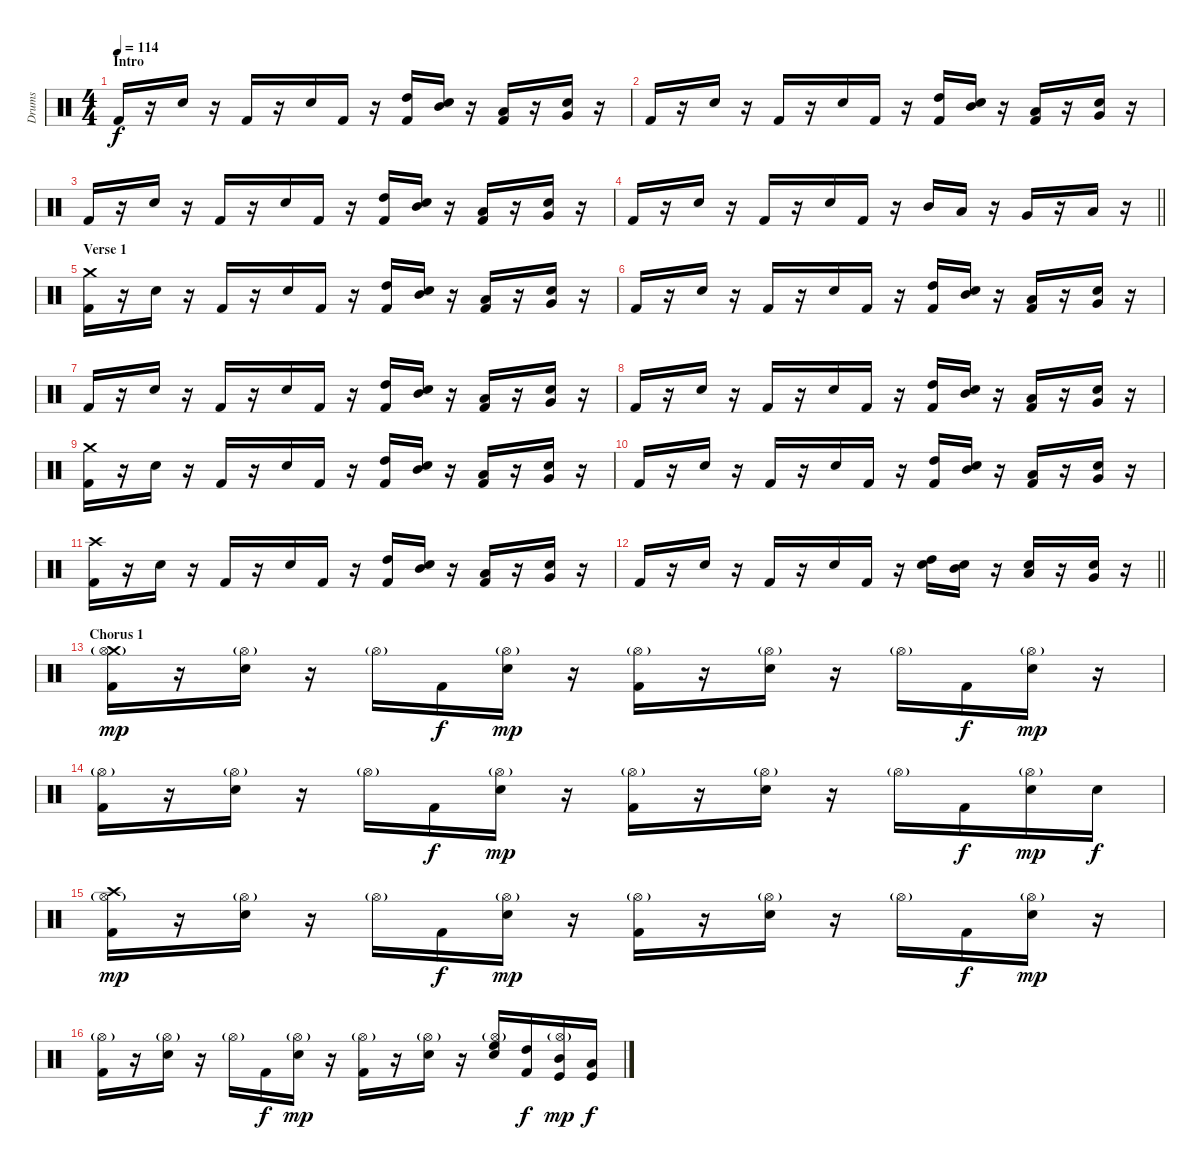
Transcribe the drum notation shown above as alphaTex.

\track ("Drums" "Drums") {instrument percussion}
\staff {score}
\articulation defaults
\ts (4 4)
\section ("" "Intro")
\tempo 114
\clef neutral
\ks c "Kick (hit) 2".16{dy f}
r.16 "Electric Snare (hit)".16 r.16 "Kick (hit) 2".16 r.16 "Electric Snare (hit)".16 "Kick (hit) 2".16 r.16 ("High Tom (hit)" "Kick (hit) 2").16 ("Mid Tom (hit)" "Electric Snare (hit)").16 r.16 ("Low Tom (hit)" "Kick (hit) 2").16 r.16 ("Very Low Tom (hit)" "Electric Snare (hit)").16 r.16 |
"Kick (hit) 2".16 r.16 "Electric Snare (hit)".16 r.16 "Kick (hit) 2".16 r.16 "Electric Snare (hit)".16 "Kick (hit) 2".16 r.16 ("High Tom (hit)" "Kick (hit) 2").16 ("Mid Tom (hit)" "Electric Snare (hit)").16 r.16 ("Low Tom (hit)" "Kick (hit) 2").16 r.16 ("Very Low Tom (hit)" "Electric Snare (hit)").16 r.16 |
"Kick (hit) 2".16 r.16 "Electric Snare (hit)".16 r.16 "Kick (hit) 2".16 r.16 "Electric Snare (hit)".16 "Kick (hit) 2".16 r.16 ("High Tom (hit)" "Kick (hit) 2").16 ("Mid Tom (hit)" "Electric Snare (hit)").16 r.16 ("Low Tom (hit)" "Kick (hit) 2").16 r.16 ("Very Low Tom (hit)" "Electric Snare (hit)").16 r.16 |
\barLineRight lightlight "Kick (hit) 2".16
r.16 "Electric Snare (hit)".16 r.16 "Kick (hit) 2".16 r.16 "Electric Snare (hit)".16 "Kick (hit) 2".16 r.16 "Mid Tom (hit)".16 "Low Tom (hit)".16 r.16 "Very Low Tom (hit)".16 r.16 "Low Floor Tom (hit)".16 r.16 |
\section ("" "Verse 1")
("Crash medium (hit)" "Kick (hit) 2").16 r.16 "Electric Snare (hit)".16 r.16 "Kick (hit) 2".16 r.16 "Electric Snare (hit)".16 "Kick (hit) 2".16 r.16 ("High Tom (hit)" "Kick (hit) 2").16 ("Mid Tom (hit)" "Electric Snare (hit)").16 r.16 ("Low Tom (hit)" "Kick (hit) 2").16 r.16 ("Very Low Tom (hit)" "Electric Snare (hit)").16 r.16 |
"Kick (hit) 2".16 r.16 "Electric Snare (hit)".16 r.16 "Kick (hit) 2".16 r.16 "Electric Snare (hit)".16 "Kick (hit) 2".16 r.16 ("High Tom (hit)" "Kick (hit) 2").16 ("Mid Tom (hit)" "Electric Snare (hit)").16 r.16 ("Low Tom (hit)" "Kick (hit) 2").16 r.16 ("Very Low Tom (hit)" "Electric Snare (hit)").16 r.16 |
"Kick (hit) 2".16 r.16 "Electric Snare (hit)".16 r.16 "Kick (hit) 2".16 r.16 "Electric Snare (hit)".16 "Kick (hit) 2".16 r.16 ("High Tom (hit)" "Kick (hit) 2").16 ("Mid Tom (hit)" "Electric Snare (hit)").16 r.16 ("Low Tom (hit)" "Kick (hit) 2").16 r.16 ("Very Low Tom (hit)" "Electric Snare (hit)").16 r.16 |
"Kick (hit) 2".16 r.16 "Electric Snare (hit)".16 r.16 "Kick (hit) 2".16 r.16 "Electric Snare (hit)".16 "Kick (hit) 2".16 r.16 ("High Tom (hit)" "Kick (hit) 2").16 ("Mid Tom (hit)" "Electric Snare (hit)").16 r.16 ("Low Tom (hit)" "Kick (hit) 2").16 r.16 ("Very Low Tom (hit)" "Electric Snare (hit)").16 r.16 |
("Crash medium (hit)" "Kick (hit) 2").16 r.16 "Electric Snare (hit)".16 r.16 "Kick (hit) 2".16 r.16 "Electric Snare (hit)".16 "Kick (hit) 2".16 r.16 ("High Tom (hit)" "Kick (hit) 2").16 ("Mid Tom (hit)" "Electric Snare (hit)").16 r.16 ("Low Tom (hit)" "Kick (hit) 2").16 r.16 ("Very Low Tom (hit)" "Electric Snare (hit)").16 r.16 |
"Kick (hit) 2".16 r.16 "Electric Snare (hit)".16 r.16 "Kick (hit) 2".16 r.16 "Electric Snare (hit)".16 "Kick (hit) 2".16 r.16 ("High Tom (hit)" "Kick (hit) 2").16 ("Mid Tom (hit)" "Electric Snare (hit)").16 r.16 ("Low Tom (hit)" "Kick (hit) 2").16 r.16 ("Very Low Tom (hit)" "Electric Snare (hit)").16 r.16 |
("Crash high (hit)" "Kick (hit) 2").16 r.16 "Electric Snare (hit)".16 r.16 "Kick (hit) 2".16 r.16 "Electric Snare (hit)".16 "Kick (hit) 2".16 r.16 ("High Tom (hit)" "Kick (hit) 2").16 ("Mid Tom (hit)" "Electric Snare (hit)").16 r.16 ("Low Tom (hit)" "Kick (hit) 2").16 r.16 ("Very Low Tom (hit)" "Electric Snare (hit)").16 r.16 |
\barLineRight lightlight "Kick (hit) 2".16
r.16 "Electric Snare (hit)".16 r.16 "Kick (hit) 2".16 r.16 "Electric Snare (hit)".16 "Kick (hit) 2".16 r.16 ("High Tom (hit)" "Electric Snare (hit)").16 ("Mid Tom (hit)" "Electric Snare (hit)").16 r.16 ("Low Tom (hit)" "Electric Snare (hit)").16 r.16 ("Very Low Tom (hit)" "Electric Snare (hit)").16 r.16 |
\section ("" "Chorus 1")
("Crash medium (hit)" "Hi-Hat (open)"{g} "Kick (hit) 2").16{dy mp} r.16 ("Hi-Hat (open)"{g} "Electric Snare (hit)").16 r.16 "Hi-Hat (open)"{g}.16 "Kick (hit) 2".16{dy f} ("Hi-Hat (open)"{g} "Electric Snare (hit)").16{dy mp} r.16 ("Hi-Hat (open)"{g} "Kick (hit) 2").16 r.16 ("Hi-Hat (open)"{g} "Electric Snare (hit)").16 r.16 "Hi-Hat (open)"{g}.16 "Kick (hit) 2".16{dy f} ("Hi-Hat (open)"{g} "Electric Snare (hit)").16{dy mp} r.16 |
("Hi-Hat (open)"{g} "Kick (hit) 2").16 r.16 ("Hi-Hat (open)"{g} "Electric Snare (hit)").16 r.16 "Hi-Hat (open)"{g}.16 "Kick (hit) 2".16{dy f} ("Hi-Hat (open)"{g} "Electric Snare (hit)").16{dy mp} r.16 ("Hi-Hat (open)"{g} "Kick (hit) 2").16 r.16 ("Hi-Hat (open)"{g} "Electric Snare (hit)").16 r.16 "Hi-Hat (open)"{g}.16 "Kick (hit) 2".16{dy f} ("Hi-Hat (open)"{g} "Electric Snare (hit)").16{dy mp} "Electric Snare (hit)".16{dy f} |
("Crash high (hit)" "Hi-Hat (open)"{g} "Kick (hit) 2").16{dy mp} r.16 ("Hi-Hat (open)"{g} "Electric Snare (hit)").16 r.16 "Hi-Hat (open)"{g}.16 "Kick (hit) 2".16{dy f} ("Hi-Hat (open)"{g} "Electric Snare (hit)").16{dy mp} r.16 ("Hi-Hat (open)"{g} "Kick (hit) 2").16 r.16 ("Hi-Hat (open)"{g} "Electric Snare (hit)").16 r.16 "Hi-Hat (open)"{g}.16 "Kick (hit) 2".16{dy f} ("Hi-Hat (open)"{g} "Electric Snare (hit)").16{dy mp} r.16 |
("Hi-Hat (open)"{g} "Kick (hit) 2").16 r.16 ("Hi-Hat (open)"{g} "Electric Snare (hit)").16 r.16 "Hi-Hat (open)"{g}.16 "Kick (hit) 2".16{dy f} ("Hi-Hat (open)"{g} "Electric Snare (hit)").16{dy mp} r.16 ("Hi-Hat (open)"{g} "Kick (hit) 2").16 r.16 ("Hi-Hat (open)"{g} "Electric Snare (hit)").16 r.16 ("Hi-Hat (open)"{g} "High Floor Tom (hit)" "Electric Snare (hit)").16 ("High Tom (hit)" "Kick (hit) 2").16{dy f} ("Hi-Hat (open)"{g} "Mid Tom (hit)" "Kick (hit)").16{dy mp} ("Low Tom (hit)" "Kick (hit)").16{dy f}
